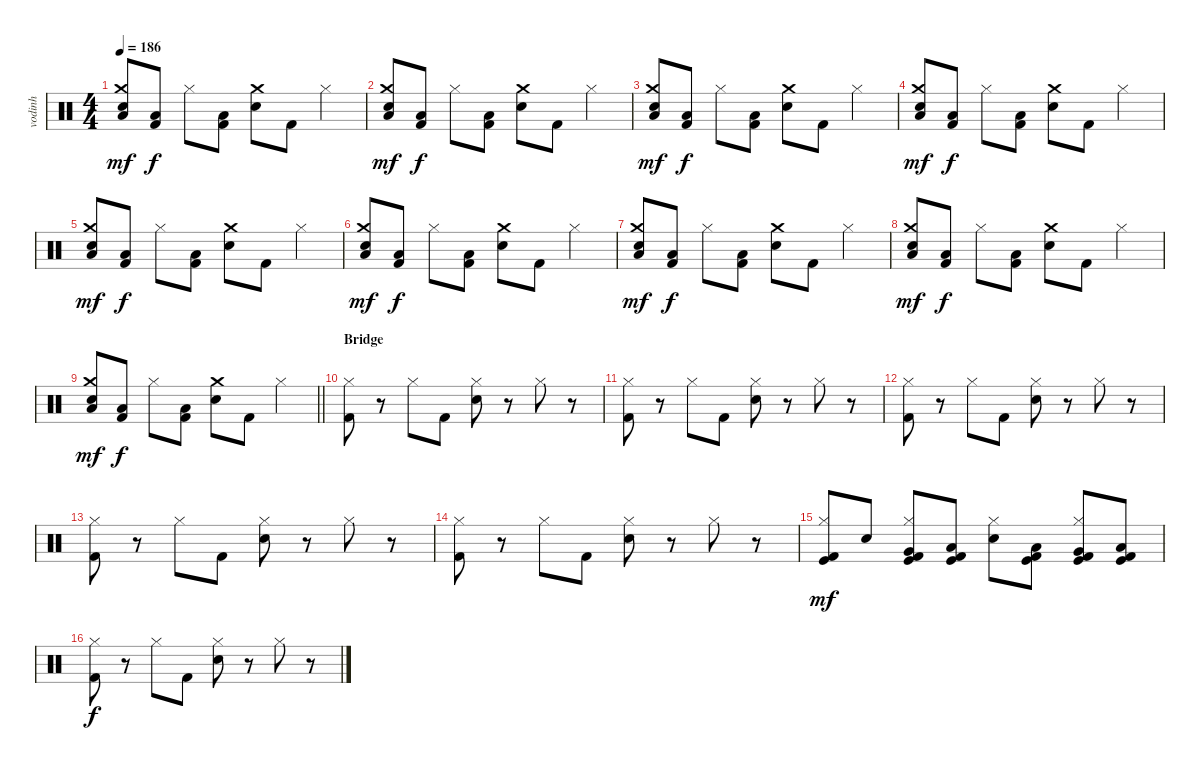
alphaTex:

\track ("vodinh" "vodinh") {instrument percussion}
\staff {score}
\articulation defaults
\ts (4 4)
\tempo 186
\clef neutral
\ks c
("Snare (hit) 2" "Crash medium (hit)" "Low Floor Tom (hit)").8{dy mf} ("Kick (hit) 2" "Low Floor Tom (hit)").8{dy f} "Hi-Hat (closed)".8 ("Kick (hit) 2" "Low Floor Tom (hit)").8 ("Snare (hit) 2" "Crash medium (hit)").8 "Kick (hit) 2".8 "Hi-Hat (closed)".4 |
("Snare (hit) 2" "Crash medium (hit)" "Low Floor Tom (hit)").8{dy mf} ("Kick (hit) 2" "Low Floor Tom (hit)").8{dy f} "Hi-Hat (closed)".8 ("Kick (hit) 2" "Low Floor Tom (hit)").8 ("Snare (hit) 2" "Crash medium (hit)").8 "Kick (hit) 2".8 "Hi-Hat (closed)".4 |
("Snare (hit) 2" "Crash medium (hit)" "Low Floor Tom (hit)").8{dy mf} ("Kick (hit) 2" "Low Floor Tom (hit)").8{dy f} "Hi-Hat (closed)".8 ("Kick (hit) 2" "Low Floor Tom (hit)").8 ("Snare (hit) 2" "Crash medium (hit)").8 "Kick (hit) 2".8 "Hi-Hat (closed)".4 |
("Snare (hit) 2" "Crash medium (hit)" "Low Floor Tom (hit)").8{dy mf} ("Kick (hit) 2" "Low Floor Tom (hit)").8{dy f} "Hi-Hat (closed)".8 ("Kick (hit) 2" "Low Floor Tom (hit)").8 ("Snare (hit) 2" "Crash medium (hit)").8 "Kick (hit) 2".8 "Hi-Hat (closed)".4 |
("Snare (hit) 2" "Crash medium (hit)" "Low Floor Tom (hit)").8{dy mf} ("Kick (hit) 2" "Low Floor Tom (hit)").8{dy f} "Hi-Hat (closed)".8 ("Kick (hit) 2" "Low Floor Tom (hit)").8 ("Snare (hit) 2" "Crash medium (hit)").8 "Kick (hit) 2".8 "Hi-Hat (closed)".4 |
("Snare (hit) 2" "Crash medium (hit)" "Low Floor Tom (hit)").8{dy mf} ("Kick (hit) 2" "Low Floor Tom (hit)").8{dy f} "Hi-Hat (closed)".8 ("Kick (hit) 2" "Low Floor Tom (hit)").8 ("Snare (hit) 2" "Crash medium (hit)").8 "Kick (hit) 2".8 "Hi-Hat (closed)".4 |
("Snare (hit) 2" "Crash medium (hit)" "Low Floor Tom (hit)").8{dy mf} ("Kick (hit) 2" "Low Floor Tom (hit)").8{dy f} "Hi-Hat (closed)".8 ("Kick (hit) 2" "Low Floor Tom (hit)").8 ("Snare (hit) 2" "Crash medium (hit)").8 "Kick (hit) 2".8 "Hi-Hat (closed)".4 |
("Snare (hit) 2" "Crash medium (hit)" "Low Floor Tom (hit)").8{dy mf} ("Kick (hit) 2" "Low Floor Tom (hit)").8{dy f} "Hi-Hat (closed)".8 ("Kick (hit) 2" "Low Floor Tom (hit)").8 ("Snare (hit) 2" "Crash medium (hit)").8 "Kick (hit) 2".8 "Hi-Hat (closed)".4 |
\barLineRight lightlight
("Snare (hit) 2" "Crash medium (hit)" "Low Floor Tom (hit)").8{dy mf} ("Kick (hit) 2" "Low Floor Tom (hit)").8{dy f} "Hi-Hat (closed)".8 ("Kick (hit) 2" "Low Floor Tom (hit)").8 ("Snare (hit) 2" "Crash medium (hit)").8 "Kick (hit) 2".8 "Hi-Hat (closed)".4 |
\section ("" "Bridge")
("Hi-Hat (closed)" "Kick (hit) 2").8 r.8 "Hi-Hat (closed)".8 "Kick (hit) 2".8 ("Hi-Hat (closed)" "Snare (hit) 2").8 r.8 "Hi-Hat (closed)".8 r.8 |
("Hi-Hat (closed)" "Kick (hit) 2").8 r.8 "Hi-Hat (closed)".8 "Kick (hit) 2".8 ("Hi-Hat (closed)" "Snare (hit) 2").8 r.8 "Hi-Hat (closed)".8 r.8 |
("Hi-Hat (closed)" "Kick (hit) 2").8 r.8 "Hi-Hat (closed)".8 "Kick (hit) 2".8 ("Hi-Hat (closed)" "Snare (hit) 2").8 r.8 "Hi-Hat (closed)".8 r.8 |
("Hi-Hat (closed)" "Kick (hit) 2").8 r.8 "Hi-Hat (closed)".8 "Kick (hit) 2".8 ("Hi-Hat (closed)" "Snare (hit) 2").8 r.8 "Hi-Hat (closed)".8 r.8 |
("Hi-Hat (closed)" "Kick (hit) 2").8 r.8 "Hi-Hat (closed)".8 "Kick (hit) 2".8 ("Hi-Hat (closed)" "Snare (hit) 2").8 r.8 "Hi-Hat (closed)".8 r.8 |
("Hi-Hat (closed)" "Kick (hit)" "Kick (hit) 2").8{dy mf} "Electric Snare (hit)".8 ("Hi-Hat (closed)" "Very Low Tom (hit)" "Kick (hit)" "Kick (hit) 2").8 ("Low Tom (hit)" "Kick (hit)" "Kick (hit) 2").8 ("Hi-Hat (closed)" "Electric Snare (hit)").8 ("Low Tom (hit)" "Kick (hit)" "Kick (hit) 2").8 ("Hi-Hat (closed)" "Very Low Tom (hit)" "Kick (hit)" "Kick (hit) 2").8 ("Low Floor Tom (hit)" "Kick (hit)" "Kick (hit) 2").8 |
("Hi-Hat (closed)" "Kick (hit) 2").8{dy f} r.8 "Hi-Hat (closed)".8 "Kick (hit) 2".8 ("Hi-Hat (closed)" "Snare (hit) 2").8 r.8 "Hi-Hat (closed)".8 r.8
